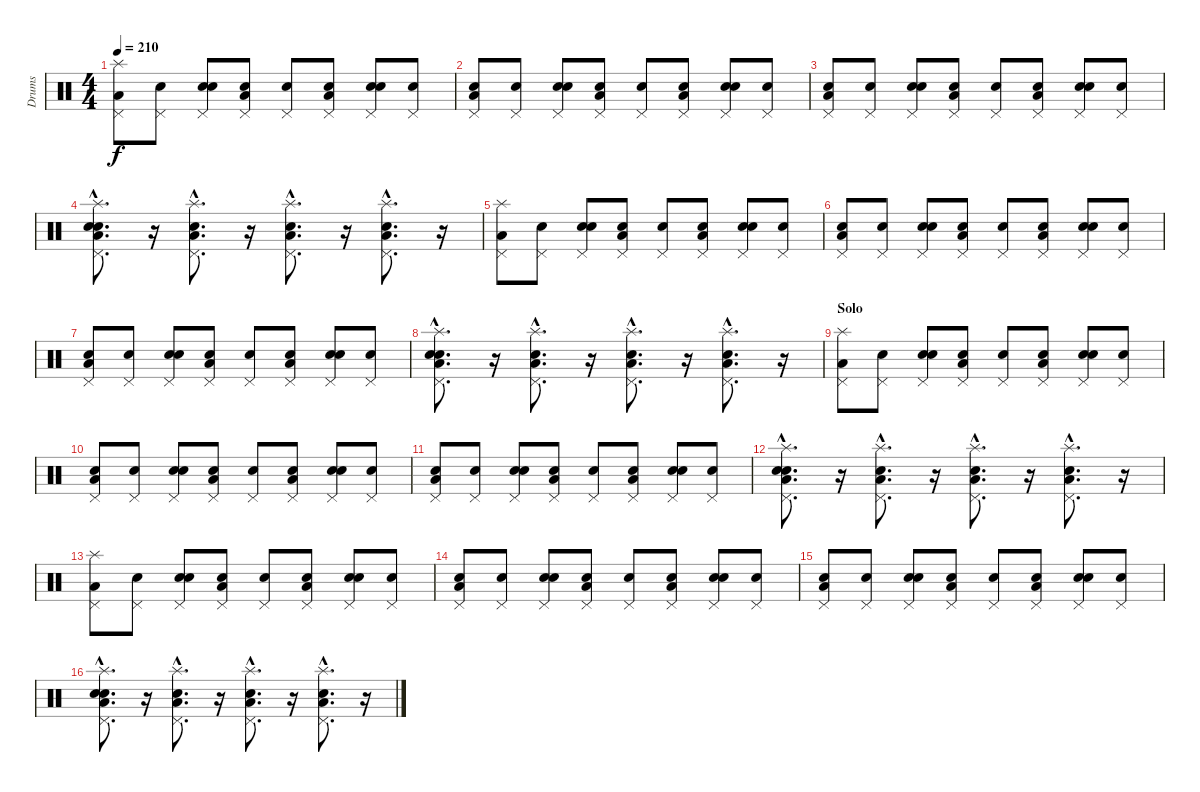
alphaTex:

\track ("Drums" "Drums") {instrument percussion}
\staff {score}
\articulation defaults
\ts (4 4)
\tempo 210
\clef neutral
\ks c
("Low Floor Tom (hit)" "Pedal Hi-Hat (hit)" "Splash (hit)").8{dy f} ("Snare (hit)" "Pedal Hi-Hat (hit)").8 ("Snare (hit)" "Electric Snare (hit)" "Pedal Hi-Hat (hit)").8 ("Snare (hit)" "Low Floor Tom (hit)" "Pedal Hi-Hat (hit)").8 ("Snare (hit)" "Pedal Hi-Hat (hit)").8 ("Snare (hit)" "Low Floor Tom (hit)" "Pedal Hi-Hat (hit)").8 ("Snare (hit)" "Electric Snare (hit)" "Pedal Hi-Hat (hit)").8 ("Snare (hit)" "Pedal Hi-Hat (hit)").8 |
("Snare (hit)" "Low Floor Tom (hit)" "Pedal Hi-Hat (hit)").8 ("Snare (hit)" "Pedal Hi-Hat (hit)").8 ("Snare (hit)" "Electric Snare (hit)" "Pedal Hi-Hat (hit)").8 ("Snare (hit)" "Low Floor Tom (hit)" "Pedal Hi-Hat (hit)").8 ("Snare (hit)" "Pedal Hi-Hat (hit)").8 ("Snare (hit)" "Low Floor Tom (hit)" "Pedal Hi-Hat (hit)").8 ("Snare (hit)" "Electric Snare (hit)" "Pedal Hi-Hat (hit)").8 ("Snare (hit)" "Pedal Hi-Hat (hit)").8 |
("Snare (hit)" "Low Floor Tom (hit)" "Pedal Hi-Hat (hit)").8 ("Snare (hit)" "Pedal Hi-Hat (hit)").8 ("Snare (hit)" "Electric Snare (hit)" "Pedal Hi-Hat (hit)").8 ("Snare (hit)" "Low Floor Tom (hit)" "Pedal Hi-Hat (hit)").8 ("Snare (hit)" "Pedal Hi-Hat (hit)").8 ("Snare (hit)" "Low Floor Tom (hit)" "Pedal Hi-Hat (hit)").8 ("Snare (hit)" "Electric Snare (hit)" "Pedal Hi-Hat (hit)").8 ("Snare (hit)" "Pedal Hi-Hat (hit)").8 |
("Snare (hit)"{hac} "Electric Snare (hit)"{hac} "Low Floor Tom (hit)"{hac} "Pedal Hi-Hat (hit)"{hac} "Splash (hit)"{hac}).8{d} r.16 ("Electric Snare (hit)"{hac} "Low Floor Tom (hit)"{hac} "Pedal Hi-Hat (hit)"{hac} "Splash (hit)"{hac}).8{d} r.16 ("Electric Snare (hit)"{hac} "Low Floor Tom (hit)"{hac} "Pedal Hi-Hat (hit)"{hac} "Splash (hit)"{hac}).8{d} r.16 ("Electric Snare (hit)"{hac} "Low Floor Tom (hit)"{hac} "Pedal Hi-Hat (hit)"{hac} "Splash (hit)"{hac}).8{d} r.16 |
("Low Floor Tom (hit)" "Pedal Hi-Hat (hit)" "Splash (hit)").8 ("Snare (hit)" "Pedal Hi-Hat (hit)").8 ("Snare (hit)" "Electric Snare (hit)" "Pedal Hi-Hat (hit)").8 ("Snare (hit)" "Low Floor Tom (hit)" "Pedal Hi-Hat (hit)").8 ("Snare (hit)" "Pedal Hi-Hat (hit)").8 ("Snare (hit)" "Low Floor Tom (hit)" "Pedal Hi-Hat (hit)").8 ("Snare (hit)" "Electric Snare (hit)" "Pedal Hi-Hat (hit)").8 ("Snare (hit)" "Pedal Hi-Hat (hit)").8 |
("Snare (hit)" "Low Floor Tom (hit)" "Pedal Hi-Hat (hit)").8 ("Snare (hit)" "Pedal Hi-Hat (hit)").8 ("Snare (hit)" "Electric Snare (hit)" "Pedal Hi-Hat (hit)").8 ("Snare (hit)" "Low Floor Tom (hit)" "Pedal Hi-Hat (hit)").8 ("Snare (hit)" "Pedal Hi-Hat (hit)").8 ("Snare (hit)" "Low Floor Tom (hit)" "Pedal Hi-Hat (hit)").8 ("Snare (hit)" "Electric Snare (hit)" "Pedal Hi-Hat (hit)").8 ("Snare (hit)" "Pedal Hi-Hat (hit)").8 |
("Snare (hit)" "Low Floor Tom (hit)" "Pedal Hi-Hat (hit)").8 ("Snare (hit)" "Pedal Hi-Hat (hit)").8 ("Snare (hit)" "Electric Snare (hit)" "Pedal Hi-Hat (hit)").8 ("Snare (hit)" "Low Floor Tom (hit)" "Pedal Hi-Hat (hit)").8 ("Snare (hit)" "Pedal Hi-Hat (hit)").8 ("Snare (hit)" "Low Floor Tom (hit)" "Pedal Hi-Hat (hit)").8 ("Snare (hit)" "Electric Snare (hit)" "Pedal Hi-Hat (hit)").8 ("Snare (hit)" "Pedal Hi-Hat (hit)").8 |
("Snare (hit)"{hac} "Electric Snare (hit)"{hac} "Low Floor Tom (hit)"{hac} "Pedal Hi-Hat (hit)"{hac} "Splash (hit)"{hac}).8{d} r.16 ("Electric Snare (hit)"{hac} "Low Floor Tom (hit)"{hac} "Pedal Hi-Hat (hit)"{hac} "Splash (hit)"{hac}).8{d} r.16 ("Electric Snare (hit)"{hac} "Low Floor Tom (hit)"{hac} "Pedal Hi-Hat (hit)"{hac} "Splash (hit)"{hac}).8{d} r.16 ("Electric Snare (hit)"{hac} "Low Floor Tom (hit)"{hac} "Pedal Hi-Hat (hit)"{hac} "Splash (hit)"{hac}).8{d} r.16 |
\section ("" "Solo")
("Low Floor Tom (hit)" "Pedal Hi-Hat (hit)" "Splash (hit)").8 ("Snare (hit)" "Pedal Hi-Hat (hit)").8 ("Snare (hit)" "Electric Snare (hit)" "Pedal Hi-Hat (hit)").8 ("Snare (hit)" "Low Floor Tom (hit)" "Pedal Hi-Hat (hit)").8 ("Snare (hit)" "Pedal Hi-Hat (hit)").8 ("Snare (hit)" "Low Floor Tom (hit)" "Pedal Hi-Hat (hit)").8 ("Snare (hit)" "Electric Snare (hit)" "Pedal Hi-Hat (hit)").8 ("Snare (hit)" "Pedal Hi-Hat (hit)").8 |
("Snare (hit)" "Low Floor Tom (hit)" "Pedal Hi-Hat (hit)").8 ("Snare (hit)" "Pedal Hi-Hat (hit)").8 ("Snare (hit)" "Electric Snare (hit)" "Pedal Hi-Hat (hit)").8 ("Snare (hit)" "Low Floor Tom (hit)" "Pedal Hi-Hat (hit)").8 ("Snare (hit)" "Pedal Hi-Hat (hit)").8 ("Snare (hit)" "Low Floor Tom (hit)" "Pedal Hi-Hat (hit)").8 ("Snare (hit)" "Electric Snare (hit)" "Pedal Hi-Hat (hit)").8 ("Snare (hit)" "Pedal Hi-Hat (hit)").8 |
("Snare (hit)" "Low Floor Tom (hit)" "Pedal Hi-Hat (hit)").8 ("Snare (hit)" "Pedal Hi-Hat (hit)").8 ("Snare (hit)" "Electric Snare (hit)" "Pedal Hi-Hat (hit)").8 ("Snare (hit)" "Low Floor Tom (hit)" "Pedal Hi-Hat (hit)").8 ("Snare (hit)" "Pedal Hi-Hat (hit)").8 ("Snare (hit)" "Low Floor Tom (hit)" "Pedal Hi-Hat (hit)").8 ("Snare (hit)" "Electric Snare (hit)" "Pedal Hi-Hat (hit)").8 ("Snare (hit)" "Pedal Hi-Hat (hit)").8 |
("Snare (hit)"{hac} "Electric Snare (hit)"{hac} "Low Floor Tom (hit)"{hac} "Pedal Hi-Hat (hit)"{hac} "Splash (hit)"{hac}).8{d} r.16 ("Electric Snare (hit)"{hac} "Low Floor Tom (hit)"{hac} "Pedal Hi-Hat (hit)"{hac} "Splash (hit)"{hac}).8{d} r.16 ("Electric Snare (hit)"{hac} "Low Floor Tom (hit)"{hac} "Pedal Hi-Hat (hit)"{hac} "Splash (hit)"{hac}).8{d} r.16 ("Electric Snare (hit)"{hac} "Low Floor Tom (hit)"{hac} "Pedal Hi-Hat (hit)"{hac} "Splash (hit)"{hac}).8{d} r.16 |
("Low Floor Tom (hit)" "Pedal Hi-Hat (hit)" "Splash (hit)").8 ("Snare (hit)" "Pedal Hi-Hat (hit)").8 ("Snare (hit)" "Electric Snare (hit)" "Pedal Hi-Hat (hit)").8 ("Snare (hit)" "Low Floor Tom (hit)" "Pedal Hi-Hat (hit)").8 ("Snare (hit)" "Pedal Hi-Hat (hit)").8 ("Snare (hit)" "Low Floor Tom (hit)" "Pedal Hi-Hat (hit)").8 ("Snare (hit)" "Electric Snare (hit)" "Pedal Hi-Hat (hit)").8 ("Snare (hit)" "Pedal Hi-Hat (hit)").8 |
("Snare (hit)" "Low Floor Tom (hit)" "Pedal Hi-Hat (hit)").8 ("Snare (hit)" "Pedal Hi-Hat (hit)").8 ("Snare (hit)" "Electric Snare (hit)" "Pedal Hi-Hat (hit)").8 ("Snare (hit)" "Low Floor Tom (hit)" "Pedal Hi-Hat (hit)").8 ("Snare (hit)" "Pedal Hi-Hat (hit)").8 ("Snare (hit)" "Low Floor Tom (hit)" "Pedal Hi-Hat (hit)").8 ("Snare (hit)" "Electric Snare (hit)" "Pedal Hi-Hat (hit)").8 ("Snare (hit)" "Pedal Hi-Hat (hit)").8 |
("Snare (hit)" "Low Floor Tom (hit)" "Pedal Hi-Hat (hit)").8 ("Snare (hit)" "Pedal Hi-Hat (hit)").8 ("Snare (hit)" "Electric Snare (hit)" "Pedal Hi-Hat (hit)").8 ("Snare (hit)" "Low Floor Tom (hit)" "Pedal Hi-Hat (hit)").8 ("Snare (hit)" "Pedal Hi-Hat (hit)").8 ("Snare (hit)" "Low Floor Tom (hit)" "Pedal Hi-Hat (hit)").8 ("Snare (hit)" "Electric Snare (hit)" "Pedal Hi-Hat (hit)").8 ("Snare (hit)" "Pedal Hi-Hat (hit)").8 |
("Snare (hit)"{hac} "Electric Snare (hit)"{hac} "Low Floor Tom (hit)"{hac} "Pedal Hi-Hat (hit)"{hac} "Splash (hit)"{hac}).8{d} r.16 ("Electric Snare (hit)"{hac} "Low Floor Tom (hit)"{hac} "Pedal Hi-Hat (hit)"{hac} "Splash (hit)"{hac}).8{d} r.16 ("Electric Snare (hit)"{hac} "Low Floor Tom (hit)"{hac} "Pedal Hi-Hat (hit)"{hac} "Splash (hit)"{hac}).8{d} r.16 ("Electric Snare (hit)"{hac} "Low Floor Tom (hit)"{hac} "Pedal Hi-Hat (hit)"{hac} "Splash (hit)"{hac}).8{d} r.16
